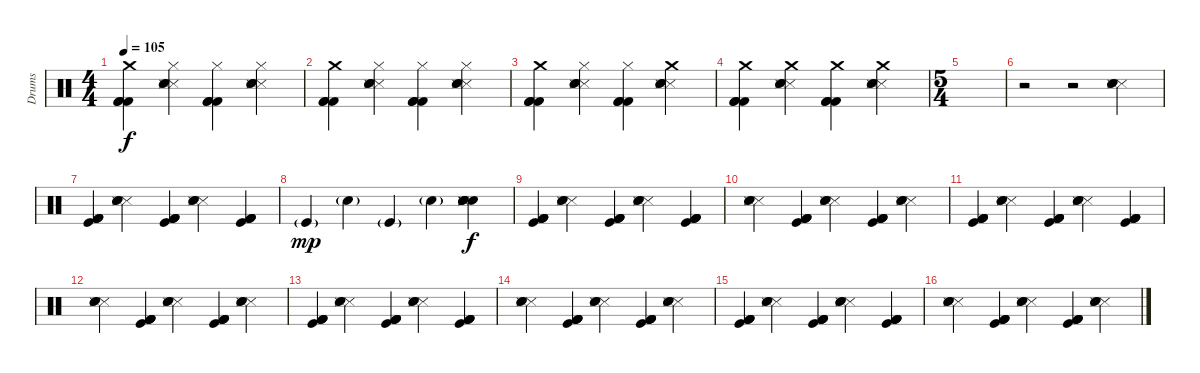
\track ("Drums" "Drums") {instrument percussion}
\staff {score}
\articulation defaults
\ts (4 4)
\tempo 105
\clef neutral
\ks c
("Crash medium (hit)" "Kick (hit) 2" "Kick (hit) 2" "Kick (hit) 2").4{dy f} ("Hi-Hat (closed)" "Snare (side stick) 3" "Snare (side stick) 3" "Snare (hit) 2" "Electric Snare (hit)").4 ("Hi-Hat (closed)" "Kick (hit) 2" "Kick (hit) 2" "Kick (hit) 2").4 ("Hi-Hat (closed)" "Snare (side stick) 3" "Snare (side stick) 3" "Snare (hit) 2" "Electric Snare (hit)").4 |
("Crash medium (hit)" "Kick (hit) 2" "Kick (hit) 2" "Kick (hit) 2").4 ("Hi-Hat (closed)" "Snare (side stick) 3" "Snare (side stick) 3" "Snare (hit) 2" "Electric Snare (hit)").4 ("Hi-Hat (closed)" "Kick (hit) 2" "Kick (hit) 2" "Kick (hit) 2").4 ("Hi-Hat (closed)" "Snare (side stick) 3" "Snare (side stick) 3" "Snare (hit) 2" "Electric Snare (hit)").4 |
("Crash medium (hit)" "Kick (hit) 2" "Kick (hit) 2" "Kick (hit) 2").4 ("Hi-Hat (closed)" "Snare (side stick) 3" "Snare (side stick) 3" "Snare (hit) 2" "Electric Snare (hit)").4 ("Hi-Hat (closed)" "Kick (hit) 2" "Kick (hit) 2" "Kick (hit) 2").4 ("Crash medium (hit)" "Snare (side stick) 3" "Snare (side stick) 3" "Snare (hit) 2" "Electric Snare (hit)").4 |
("Crash medium (hit)" "Kick (hit) 2" "Kick (hit) 2" "Kick (hit) 2").4 ("Crash medium (hit)" "Snare (side stick) 3" "Snare (side stick) 3" "Snare (hit) 2" "Electric Snare (hit)").4 ("Crash medium (hit)" "Kick (hit) 2" "Kick (hit) 2" "Kick (hit) 2").4 ("Crash medium (hit)" "Snare (side stick) 3" "Snare (side stick) 3" "Snare (hit) 2" "Electric Snare (hit)").4 |
\ts (5 4)
|
r.2 r.2 ("Snare (side stick) 3" "Snare (side stick) 3" "Electric Snare (hit)" "Snare (hit) 2").4 |
("Kick (hit)" "Kick (hit) 2" "Kick (hit) 2" "Kick (hit) 2").4 ("Snare (side stick) 3" "Electric Snare (hit)" "Snare (side stick) 3" "Snare (hit) 2").4 ("Kick (hit)" "Kick (hit) 2" "Kick (hit) 2" "Kick (hit) 2").4 ("Snare (side stick) 3" "Electric Snare (hit)" "Snare (side stick) 3" "Snare (hit) 2").4 ("Kick (hit)" "Kick (hit) 2" "Kick (hit) 2" "Kick (hit) 2").4 |
"Kick (hit)"{g}.4{dy mp} "Hand Clap (hit)"{g}.4 "Kick (hit)"{g}.4 "Hand Clap (hit)"{g}.4 ("Snare (hit) 2" "Snare (hit) 2" "Electric Snare (hit)" "Snare (side stick) 3" "Electric Snare (hit)" "Snare (side stick) 3").4{dy f} |
("Kick (hit)" "Kick (hit) 2" "Kick (hit) 2" "Kick (hit) 2").4 ("Snare (side stick) 3" "Electric Snare (hit)" "Snare (side stick) 3" "Snare (hit) 2").4 ("Kick (hit)" "Kick (hit) 2" "Kick (hit) 2" "Kick (hit) 2").4 ("Snare (side stick) 3" "Electric Snare (hit)" "Snare (side stick) 3" "Snare (hit) 2").4 ("Kick (hit)" "Kick (hit) 2" "Kick (hit) 2" "Kick (hit) 2").4 |
("Snare (side stick) 3" "Electric Snare (hit)" "Snare (side stick) 3" "Snare (hit) 2").4 ("Kick (hit)" "Kick (hit) 2" "Kick (hit) 2" "Kick (hit) 2").4 ("Snare (side stick) 3" "Electric Snare (hit)" "Snare (side stick) 3" "Snare (hit) 2").4 ("Kick (hit)" "Kick (hit) 2" "Kick (hit) 2" "Kick (hit) 2").4 ("Snare (side stick) 3" "Electric Snare (hit)" "Snare (side stick) 3" "Snare (hit) 2").4 |
("Kick (hit)" "Kick (hit) 2" "Kick (hit) 2" "Kick (hit) 2").4 ("Snare (side stick) 3" "Electric Snare (hit)" "Snare (side stick) 3" "Snare (hit) 2").4 ("Kick (hit)" "Kick (hit) 2" "Kick (hit) 2" "Kick (hit) 2").4 ("Snare (side stick) 3" "Electric Snare (hit)" "Snare (side stick) 3" "Snare (hit) 2").4 ("Kick (hit)" "Kick (hit) 2" "Kick (hit) 2" "Kick (hit) 2").4 |
("Snare (side stick) 3" "Electric Snare (hit)" "Snare (side stick) 3" "Snare (hit) 2").4 ("Kick (hit)" "Kick (hit) 2" "Kick (hit) 2" "Kick (hit) 2").4 ("Snare (side stick) 3" "Electric Snare (hit)" "Snare (side stick) 3" "Snare (hit) 2").4 ("Kick (hit)" "Kick (hit) 2" "Kick (hit) 2" "Kick (hit) 2").4 ("Snare (side stick) 3" "Electric Snare (hit)" "Snare (side stick) 3" "Snare (hit) 2").4 |
("Kick (hit)" "Kick (hit) 2" "Kick (hit) 2" "Kick (hit) 2").4 ("Snare (side stick) 3" "Electric Snare (hit)" "Snare (side stick) 3" "Snare (hit) 2").4 ("Kick (hit)" "Kick (hit) 2" "Kick (hit) 2" "Kick (hit) 2").4 ("Snare (side stick) 3" "Electric Snare (hit)" "Snare (side stick) 3" "Snare (hit) 2").4 ("Kick (hit)" "Kick (hit) 2" "Kick (hit) 2" "Kick (hit) 2").4 |
("Snare (side stick) 3" "Electric Snare (hit)" "Snare (side stick) 3" "Snare (hit) 2").4 ("Kick (hit)" "Kick (hit) 2" "Kick (hit) 2" "Kick (hit) 2").4 ("Snare (side stick) 3" "Electric Snare (hit)" "Snare (side stick) 3" "Snare (hit) 2").4 ("Kick (hit)" "Kick (hit) 2" "Kick (hit) 2" "Kick (hit) 2").4 ("Snare (side stick) 3" "Electric Snare (hit)" "Snare (side stick) 3" "Snare (hit) 2").4 |
("Kick (hit)" "Kick (hit) 2" "Kick (hit) 2" "Kick (hit) 2").4 ("Snare (side stick) 3" "Electric Snare (hit)" "Snare (side stick) 3" "Snare (hit) 2").4 ("Kick (hit)" "Kick (hit) 2" "Kick (hit) 2" "Kick (hit) 2").4 ("Snare (side stick) 3" "Electric Snare (hit)" "Snare (side stick) 3" "Snare (hit) 2").4 ("Kick (hit)" "Kick (hit) 2" "Kick (hit) 2" "Kick (hit) 2").4 |
("Snare (side stick) 3" "Electric Snare (hit)" "Snare (side stick) 3" "Snare (hit) 2").4 ("Kick (hit)" "Kick (hit) 2" "Kick (hit) 2" "Kick (hit) 2").4 ("Snare (side stick) 3" "Electric Snare (hit)" "Snare (side stick) 3" "Snare (hit) 2").4 ("Kick (hit)" "Kick (hit) 2" "Kick (hit) 2" "Kick (hit) 2").4 ("Snare (side stick) 3" "Electric Snare (hit)" "Snare (side stick) 3" "Snare (hit) 2").4
